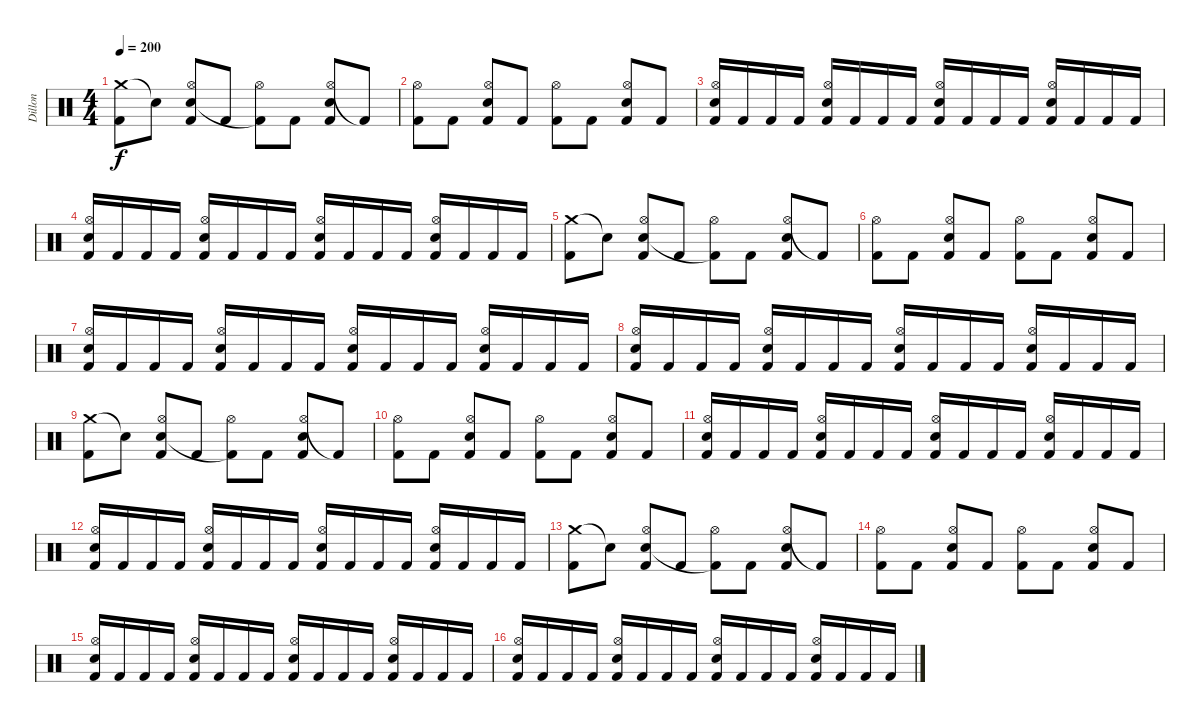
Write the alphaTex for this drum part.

\track ("Dillon" "Dillon") {instrument percussion}
\staff {score}
\articulation defaults
\ts (4 4)
\tempo 200
\clef neutral
\ks c
("Crash medium (hit)" "Kick (hit) 2").8{dy f} "Snare (hit)"{t}.8 ("Hi-Hat (open)" "Electric Snare (hit)" "Kick (hit) 2").8 "Kick (hit) 2".8 ("Hi-Hat (open)" "Kick (hit) 2"{t}).8 "Kick (hit) 2".8 ("Hi-Hat (open)" "Electric Snare (hit)" "Kick (hit) 2").8 "Kick (hit) 2"{t}.8 |
("Hi-Hat (open)" "Kick (hit) 2").8 "Kick (hit) 2".8 ("Hi-Hat (open)" "Electric Snare (hit)" "Kick (hit) 2").8 "Kick (hit) 2".8 ("Hi-Hat (open)" "Kick (hit) 2").8 "Kick (hit) 2".8 ("Hi-Hat (open)" "Electric Snare (hit)" "Kick (hit) 2").8 "Kick (hit) 2".8 |
("Hi-Hat (open)" "Electric Snare (hit)" "Kick (hit) 2").16 "Kick (hit) 2".16 "Kick (hit) 2".16 "Kick (hit) 2".16 ("Hi-Hat (open)" "Electric Snare (hit)" "Kick (hit) 2").16 "Kick (hit) 2".16 "Kick (hit) 2".16 "Kick (hit) 2".16 ("Hi-Hat (open)" "Electric Snare (hit)" "Kick (hit) 2").16 "Kick (hit) 2".16 "Kick (hit) 2".16 "Kick (hit) 2".16 ("Hi-Hat (open)" "Electric Snare (hit)" "Kick (hit) 2").16 "Kick (hit) 2".16 "Kick (hit) 2".16 "Kick (hit) 2".16 |
("Hi-Hat (open)" "Electric Snare (hit)" "Kick (hit) 2").16 "Kick (hit) 2".16 "Kick (hit) 2".16 "Kick (hit) 2".16 ("Hi-Hat (open)" "Electric Snare (hit)" "Kick (hit) 2").16 "Kick (hit) 2".16 "Kick (hit) 2".16 "Kick (hit) 2".16 ("Hi-Hat (open)" "Electric Snare (hit)" "Kick (hit) 2").16 "Kick (hit) 2".16 "Kick (hit) 2".16 "Kick (hit) 2".16 ("Hi-Hat (open)" "Electric Snare (hit)" "Kick (hit) 2").16 "Kick (hit) 2".16 "Kick (hit) 2".16 "Kick (hit) 2".16 |
("Crash medium (hit)" "Kick (hit) 2").8 "Snare (hit)"{t}.8 ("Hi-Hat (open)" "Electric Snare (hit)" "Kick (hit) 2").8 "Kick (hit) 2".8 ("Hi-Hat (open)" "Kick (hit) 2"{t}).8 "Kick (hit) 2".8 ("Hi-Hat (open)" "Electric Snare (hit)" "Kick (hit) 2").8 "Kick (hit) 2"{t}.8 |
("Hi-Hat (open)" "Kick (hit) 2").8 "Kick (hit) 2".8 ("Hi-Hat (open)" "Electric Snare (hit)" "Kick (hit) 2").8 "Kick (hit) 2".8 ("Hi-Hat (open)" "Kick (hit) 2").8 "Kick (hit) 2".8 ("Hi-Hat (open)" "Electric Snare (hit)" "Kick (hit) 2").8 "Kick (hit) 2".8 |
("Hi-Hat (open)" "Electric Snare (hit)" "Kick (hit) 2").16 "Kick (hit) 2".16 "Kick (hit) 2".16 "Kick (hit) 2".16 ("Hi-Hat (open)" "Electric Snare (hit)" "Kick (hit) 2").16 "Kick (hit) 2".16 "Kick (hit) 2".16 "Kick (hit) 2".16 ("Hi-Hat (open)" "Electric Snare (hit)" "Kick (hit) 2").16 "Kick (hit) 2".16 "Kick (hit) 2".16 "Kick (hit) 2".16 ("Hi-Hat (open)" "Electric Snare (hit)" "Kick (hit) 2").16 "Kick (hit) 2".16 "Kick (hit) 2".16 "Kick (hit) 2".16 |
("Hi-Hat (open)" "Electric Snare (hit)" "Kick (hit) 2").16 "Kick (hit) 2".16 "Kick (hit) 2".16 "Kick (hit) 2".16 ("Hi-Hat (open)" "Electric Snare (hit)" "Kick (hit) 2").16 "Kick (hit) 2".16 "Kick (hit) 2".16 "Kick (hit) 2".16 ("Hi-Hat (open)" "Electric Snare (hit)" "Kick (hit) 2").16 "Kick (hit) 2".16 "Kick (hit) 2".16 "Kick (hit) 2".16 ("Hi-Hat (open)" "Electric Snare (hit)" "Kick (hit) 2").16 "Kick (hit) 2".16 "Kick (hit) 2".16 "Kick (hit) 2".16 |
("Crash medium (hit)" "Kick (hit) 2").8 "Snare (hit)"{t}.8 ("Hi-Hat (open)" "Electric Snare (hit)" "Kick (hit) 2").8 "Kick (hit) 2".8 ("Hi-Hat (open)" "Kick (hit) 2"{t}).8 "Kick (hit) 2".8 ("Hi-Hat (open)" "Electric Snare (hit)" "Kick (hit) 2").8 "Kick (hit) 2"{t}.8 |
("Hi-Hat (open)" "Kick (hit) 2").8 "Kick (hit) 2".8 ("Hi-Hat (open)" "Electric Snare (hit)" "Kick (hit) 2").8 "Kick (hit) 2".8 ("Hi-Hat (open)" "Kick (hit) 2").8 "Kick (hit) 2".8 ("Hi-Hat (open)" "Electric Snare (hit)" "Kick (hit) 2").8 "Kick (hit) 2".8 |
("Hi-Hat (open)" "Electric Snare (hit)" "Kick (hit) 2").16 "Kick (hit) 2".16 "Kick (hit) 2".16 "Kick (hit) 2".16 ("Hi-Hat (open)" "Electric Snare (hit)" "Kick (hit) 2").16 "Kick (hit) 2".16 "Kick (hit) 2".16 "Kick (hit) 2".16 ("Hi-Hat (open)" "Electric Snare (hit)" "Kick (hit) 2").16 "Kick (hit) 2".16 "Kick (hit) 2".16 "Kick (hit) 2".16 ("Hi-Hat (open)" "Electric Snare (hit)" "Kick (hit) 2").16 "Kick (hit) 2".16 "Kick (hit) 2".16 "Kick (hit) 2".16 |
("Hi-Hat (open)" "Electric Snare (hit)" "Kick (hit) 2").16 "Kick (hit) 2".16 "Kick (hit) 2".16 "Kick (hit) 2".16 ("Hi-Hat (open)" "Electric Snare (hit)" "Kick (hit) 2").16 "Kick (hit) 2".16 "Kick (hit) 2".16 "Kick (hit) 2".16 ("Hi-Hat (open)" "Electric Snare (hit)" "Kick (hit) 2").16 "Kick (hit) 2".16 "Kick (hit) 2".16 "Kick (hit) 2".16 ("Hi-Hat (open)" "Electric Snare (hit)" "Kick (hit) 2").16 "Kick (hit) 2".16 "Kick (hit) 2".16 "Kick (hit) 2".16 |
("Crash medium (hit)" "Kick (hit) 2").8 "Snare (hit)"{t}.8 ("Hi-Hat (open)" "Electric Snare (hit)" "Kick (hit) 2").8 "Kick (hit) 2".8 ("Hi-Hat (open)" "Kick (hit) 2"{t}).8 "Kick (hit) 2".8 ("Hi-Hat (open)" "Electric Snare (hit)" "Kick (hit) 2").8 "Kick (hit) 2"{t}.8 |
("Hi-Hat (open)" "Kick (hit) 2").8 "Kick (hit) 2".8 ("Hi-Hat (open)" "Electric Snare (hit)" "Kick (hit) 2").8 "Kick (hit) 2".8 ("Hi-Hat (open)" "Kick (hit) 2").8 "Kick (hit) 2".8 ("Hi-Hat (open)" "Electric Snare (hit)" "Kick (hit) 2").8 "Kick (hit) 2".8 |
("Hi-Hat (open)" "Electric Snare (hit)" "Kick (hit) 2").16 "Kick (hit) 2".16 "Kick (hit) 2".16 "Kick (hit) 2".16 ("Hi-Hat (open)" "Electric Snare (hit)" "Kick (hit) 2").16 "Kick (hit) 2".16 "Kick (hit) 2".16 "Kick (hit) 2".16 ("Hi-Hat (open)" "Electric Snare (hit)" "Kick (hit) 2").16 "Kick (hit) 2".16 "Kick (hit) 2".16 "Kick (hit) 2".16 ("Hi-Hat (open)" "Electric Snare (hit)" "Kick (hit) 2").16 "Kick (hit) 2".16 "Kick (hit) 2".16 "Kick (hit) 2".16 |
("Hi-Hat (open)" "Electric Snare (hit)" "Kick (hit) 2").16 "Kick (hit) 2".16 "Kick (hit) 2".16 "Kick (hit) 2".16 ("Hi-Hat (open)" "Electric Snare (hit)" "Kick (hit) 2").16 "Kick (hit) 2".16 "Kick (hit) 2".16 "Kick (hit) 2".16 ("Hi-Hat (open)" "Electric Snare (hit)" "Kick (hit) 2").16 "Kick (hit) 2".16 "Kick (hit) 2".16 "Kick (hit) 2".16 ("Hi-Hat (open)" "Electric Snare (hit)" "Kick (hit) 2").16 "Kick (hit) 2".16 "Kick (hit) 2".16 "Kick (hit) 2".16
